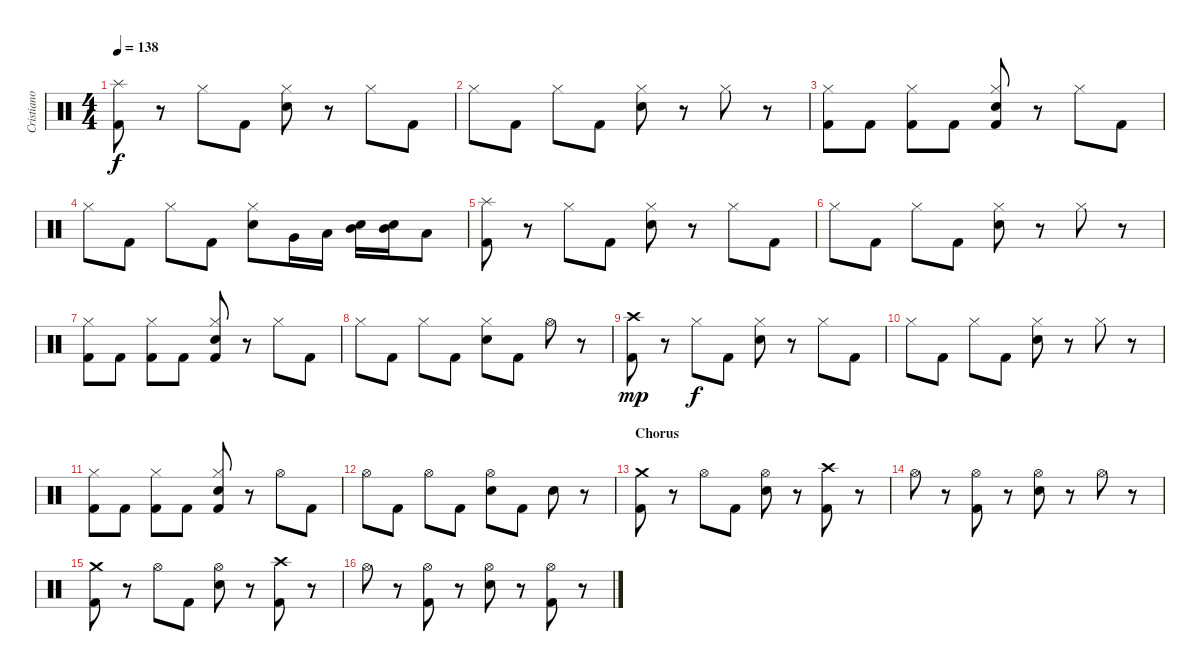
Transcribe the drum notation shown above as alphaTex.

\track ("Cristiano Mozatti" "Cristiano ") {instrument percussion}
\staff {score}
\articulation defaults
\ts (4 4)
\tempo 138
\clef neutral
\ks c
("Splash (hit)" "Kick (hit) 2").8{dy f} r.8 "Hi-Hat (closed)".8 "Kick (hit) 2".8 ("Hi-Hat (closed)" "Snare (hit) 2").8 r.8 "Hi-Hat (closed)".8 "Kick (hit) 2".8 |
"Hi-Hat (closed)".8 "Kick (hit) 2".8 "Hi-Hat (closed)".8 "Kick (hit) 2".8 ("Hi-Hat (closed)" "Snare (hit) 2").8 r.8 "Hi-Hat (closed)".8 r.8 |
("Hi-Hat (closed)" "Kick (hit) 2").8 "Kick (hit) 2".8 ("Hi-Hat (closed)" "Kick (hit) 2").8 "Kick (hit) 2".8 ("Hi-Hat (closed)" "Snare (hit) 2" "Kick (hit) 2").8 r.8 "Hi-Hat (closed)".8 "Kick (hit) 2".8 |
"Hi-Hat (closed)".8 "Kick (hit) 2".8 "Hi-Hat (closed)".8 "Kick (hit) 2".8 ("Hi-Hat (closed)" "Snare (hit) 2").8 "Very Low Tom (hit)".16 "Low Tom (hit)".16 ("Snare (hit) 2" "Mid Tom (hit)").16 ("Snare (hit) 2" "Mid Tom (hit)").16 "Low Tom (hit)".8 |
("Splash (hit)" "Kick (hit) 2").8 r.8 "Hi-Hat (closed)".8 "Kick (hit) 2".8 ("Hi-Hat (closed)" "Snare (hit) 2").8 r.8 "Hi-Hat (closed)".8 "Kick (hit) 2".8 |
"Hi-Hat (closed)".8 "Kick (hit) 2".8 "Hi-Hat (closed)".8 "Kick (hit) 2".8 ("Hi-Hat (closed)" "Snare (hit) 2").8 r.8 "Hi-Hat (closed)".8 r.8 |
("Hi-Hat (closed)" "Kick (hit) 2").8 "Kick (hit) 2".8 ("Hi-Hat (closed)" "Kick (hit) 2").8 "Kick (hit) 2".8 ("Hi-Hat (closed)" "Snare (hit) 2" "Kick (hit) 2").8 r.8 "Hi-Hat (closed)".8 "Kick (hit) 2".8 |
"Hi-Hat (closed)".8 "Kick (hit) 2".8 "Hi-Hat (closed)".8 "Kick (hit) 2".8 ("Hi-Hat (closed)" "Snare (hit) 2").8 "Kick (hit) 2".8 "Hi-Hat (open)".8 r.8 |
("Crash high (hit)" "Kick (hit) 2").8{dy mp} r.8 "Hi-Hat (closed)".8{dy f} "Kick (hit) 2".8 ("Hi-Hat (closed)" "Snare (hit) 2").8 r.8 "Hi-Hat (closed)".8 "Kick (hit) 2".8 |
"Hi-Hat (closed)".8 "Kick (hit) 2".8 "Hi-Hat (closed)".8 "Kick (hit) 2".8 ("Hi-Hat (closed)" "Snare (hit) 2").8 r.8 "Hi-Hat (closed)".8 r.8 |
("Hi-Hat (closed)" "Kick (hit) 2").8 "Kick (hit) 2".8 ("Hi-Hat (closed)" "Kick (hit) 2").8 "Kick (hit) 2".8 ("Hi-Hat (closed)" "Snare (hit) 2" "Kick (hit) 2").8 r.8 "Hi-Hat (open)".8 "Kick (hit) 2".8 |
"Hi-Hat (open)".8 "Kick (hit) 2".8 "Hi-Hat (open)".8 "Kick (hit) 2".8 ("Hi-Hat (open)" "Snare (hit) 2").8 "Kick (hit) 2".8 "Snare (hit) 2".8 r.8 |
\section ("" "Chorus")
("Crash medium (hit)" "Kick (hit) 2").8 r.8 "Hi-Hat (open)".8 "Kick (hit) 2".8 ("Hi-Hat (open)" "Snare (hit) 2").8 r.8 ("Crash high (hit)" "Kick (hit) 2").8 r.8 |
"Hi-Hat (open)".8 r.8 ("Hi-Hat (open)" "Kick (hit) 2").8 r.8 ("Hi-Hat (open)" "Snare (hit) 2").8 r.8 "Hi-Hat (open)".8 r.8 |
("Crash medium (hit)" "Kick (hit) 2").8 r.8 "Hi-Hat (open)".8 "Kick (hit) 2".8 ("Hi-Hat (open)" "Snare (hit) 2").8 r.8 ("Crash high (hit)" "Kick (hit) 2").8 r.8 |
"Hi-Hat (open)".8 r.8 ("Hi-Hat (open)" "Kick (hit) 2").8 r.8 ("Hi-Hat (open)" "Snare (hit) 2").8 r.8 ("Hi-Hat (open)" "Kick (hit) 2").8 r.8
